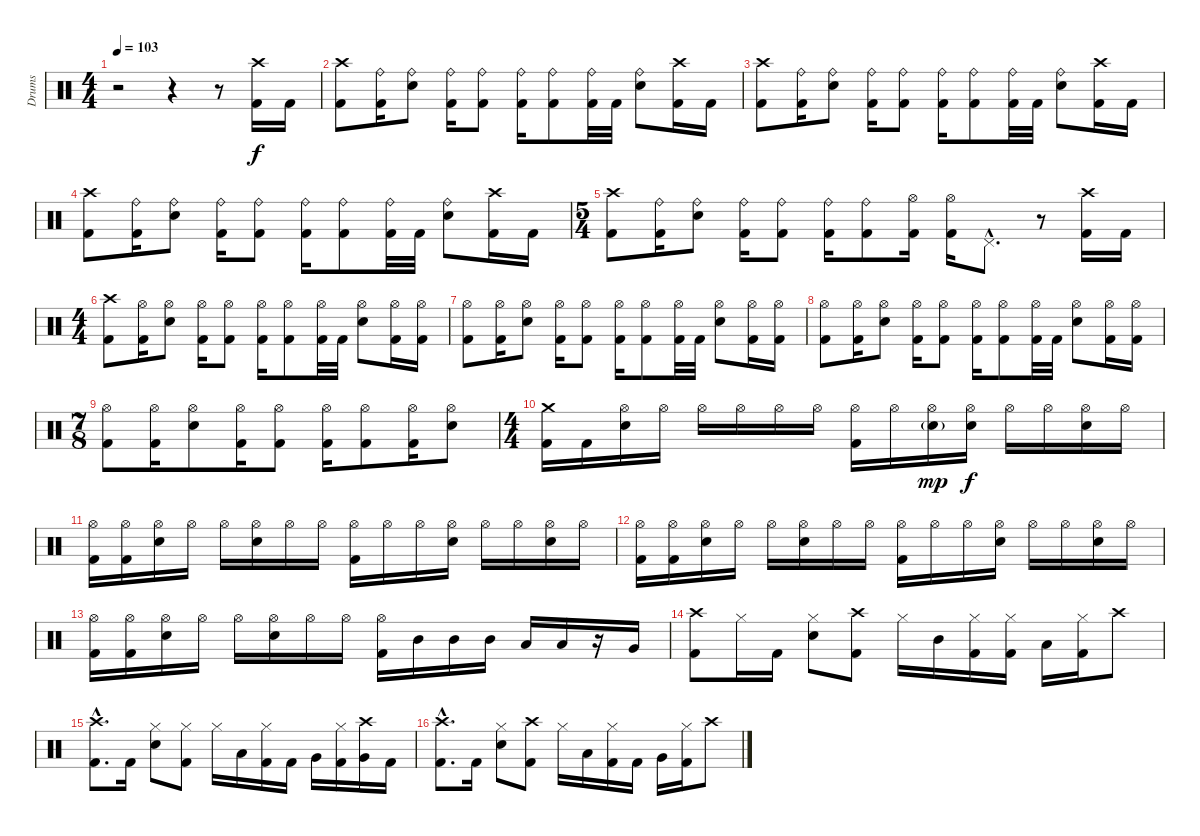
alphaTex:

\track ("Drums" "Drums") {instrument percussion}
\staff {score}
\articulation defaults
\ts (4 4)
\tempo 103
\clef neutral
\ks c
r.2{dy f} r.4 r.8 ("Crash high (hit)" "Kick (hit) 2").16 "Kick (hit) 2".16 |
("Crash high (hit)" "Kick (hit) 2").8 ("Ride (bell)" "Kick (hit) 2").16 ("Ride (bell)" "Electric Snare (hit)").8 ("Ride (bell)" "Kick (hit) 2").16 ("Ride (bell)" "Kick (hit) 2").8 ("Ride (bell)" "Kick (hit) 2").16 ("Ride (bell)" "Kick (hit) 2").8 ("Ride (bell)" "Kick (hit) 2").32 "Kick (hit) 2".32 ("Ride (bell)" "Electric Snare (hit)").8 ("Crash high (hit)" "Kick (hit) 2").16 "Kick (hit) 2".16 |
("Crash high (hit)" "Kick (hit) 2").8 ("Ride (bell)" "Kick (hit) 2").16 ("Ride (bell)" "Electric Snare (hit)").8 ("Ride (bell)" "Kick (hit) 2").16 ("Ride (bell)" "Kick (hit) 2").8 ("Ride (bell)" "Kick (hit) 2").16 ("Ride (bell)" "Kick (hit) 2").8 ("Ride (bell)" "Kick (hit) 2").32 "Kick (hit) 2".32 ("Ride (bell)" "Electric Snare (hit)").8 ("Crash high (hit)" "Kick (hit) 2").16 "Kick (hit) 2".16 |
("Crash high (hit)" "Kick (hit) 2").8 ("Ride (bell)" "Kick (hit) 2").16 ("Ride (bell)" "Electric Snare (hit)").8 ("Ride (bell)" "Kick (hit) 2").16 ("Ride (bell)" "Kick (hit) 2").8 ("Ride (bell)" "Kick (hit) 2").16 ("Ride (bell)" "Kick (hit) 2").8 ("Ride (bell)" "Kick (hit) 2").32 "Kick (hit) 2".32 ("Ride (bell)" "Electric Snare (hit)").8 ("Crash high (hit)" "Kick (hit) 2").16 "Kick (hit) 2".16 |
\ts (5 4)
("Crash high (hit)" "Kick (hit) 2").8 ("Ride (bell)" "Kick (hit) 2").16 ("Ride (bell)" "Electric Snare (hit)").8 ("Ride (bell)" "Kick (hit) 2").16 ("Ride (bell)" "Kick (hit) 2").8 ("Ride (bell)" "Kick (hit) 2").16 ("Ride (bell)" "Kick (hit) 2").8 ("Hi-Hat (open)" "Kick (hit) 2").16 ("Hi-Hat (open)" "Kick (hit) 2").16 "Pedal Hi-Hat (hit)"{hac}.8{d} r.8 ("Crash high (hit)" "Kick (hit) 2").16 "Kick (hit) 2".16 |
\ts (4 4)
("Crash high (hit)" "Kick (hit) 2").8 ("Hi-Hat (open)" "Kick (hit) 2").16 ("Hi-Hat (open)" "Electric Snare (hit)").8 ("Hi-Hat (open)" "Kick (hit) 2").16 ("Hi-Hat (open)" "Kick (hit) 2").8 ("Hi-Hat (open)" "Kick (hit) 2").16 ("Hi-Hat (open)" "Kick (hit) 2").8 ("Hi-Hat (open)" "Kick (hit) 2").32 "Kick (hit) 2".32 ("Hi-Hat (open)" "Electric Snare (hit)").8 ("Hi-Hat (open)" "Kick (hit) 2").16 ("Hi-Hat (open)" "Kick (hit) 2").16 |
("Hi-Hat (open)" "Kick (hit) 2").8 ("Hi-Hat (open)" "Kick (hit) 2").16 ("Hi-Hat (open)" "Electric Snare (hit)").8 ("Hi-Hat (open)" "Kick (hit) 2").16 ("Hi-Hat (open)" "Kick (hit) 2").8 ("Hi-Hat (open)" "Kick (hit) 2").16 ("Hi-Hat (open)" "Kick (hit) 2").8 ("Hi-Hat (open)" "Kick (hit) 2").32 "Kick (hit) 2".32 ("Hi-Hat (open)" "Electric Snare (hit)").8 ("Hi-Hat (open)" "Kick (hit) 2").16 ("Hi-Hat (open)" "Kick (hit) 2").16 |
("Hi-Hat (open)" "Kick (hit) 2").8 ("Hi-Hat (open)" "Kick (hit) 2").16 ("Hi-Hat (open)" "Electric Snare (hit)").8 ("Hi-Hat (open)" "Kick (hit) 2").16 ("Hi-Hat (open)" "Kick (hit) 2").8 ("Hi-Hat (open)" "Kick (hit) 2").16 ("Hi-Hat (open)" "Kick (hit) 2").8 ("Hi-Hat (open)" "Kick (hit) 2").32 "Kick (hit) 2".32 ("Hi-Hat (open)" "Electric Snare (hit)").8 ("Hi-Hat (open)" "Kick (hit) 2").16 ("Hi-Hat (open)" "Kick (hit) 2").16 |
\ts (7 8)
("Hi-Hat (open)" "Kick (hit) 2").8 ("Hi-Hat (open)" "Kick (hit) 2").16 ("Hi-Hat (open)" "Electric Snare (hit)").8 ("Hi-Hat (open)" "Kick (hit) 2").16 ("Hi-Hat (open)" "Kick (hit) 2").8 ("Hi-Hat (open)" "Kick (hit) 2").16 ("Hi-Hat (open)" "Kick (hit) 2").8 ("Hi-Hat (open)" "Kick (hit) 2").16 ("Hi-Hat (open)" "Electric Snare (hit)").8 |
\ts (4 4)
("Crash medium (hit)" "Kick (hit) 2").16 "Kick (hit) 2".16 ("Hi-Hat (open)" "Electric Snare (hit)").16 "Hi-Hat (open)".16 "Hi-Hat (open)".16 "Hi-Hat (open)".16 "Hi-Hat (open)".16 "Hi-Hat (open)".16 ("Hi-Hat (open)" "Kick (hit) 2").16 "Hi-Hat (open)".16 ("Hi-Hat (open)" "Electric Snare (hit)"{g}).16{dy mp} ("Hi-Hat (open)" "Electric Snare (hit)").16{dy f} "Hi-Hat (open)".16 "Hi-Hat (open)".16 ("Hi-Hat (open)" "Electric Snare (hit)").16 "Hi-Hat (open)".16 |
("Hi-Hat (open)" "Kick (hit) 2").16 ("Hi-Hat (open)" "Kick (hit) 2").16 ("Hi-Hat (open)" "Electric Snare (hit)").16 "Hi-Hat (open)".16 "Hi-Hat (open)".16 ("Hi-Hat (open)" "Electric Snare (hit)").16 "Hi-Hat (open)".16 "Hi-Hat (open)".16 ("Hi-Hat (open)" "Kick (hit) 2").16 "Hi-Hat (open)".16 "Hi-Hat (open)".16 ("Hi-Hat (open)" "Electric Snare (hit)").16 "Hi-Hat (open)".16 "Hi-Hat (open)".16 ("Hi-Hat (open)" "Electric Snare (hit)").16 "Hi-Hat (open)".16 |
("Hi-Hat (open)" "Kick (hit) 2").16 ("Hi-Hat (open)" "Kick (hit) 2").16 ("Hi-Hat (open)" "Electric Snare (hit)").16 "Hi-Hat (open)".16 "Hi-Hat (open)".16 ("Hi-Hat (open)" "Electric Snare (hit)").16 "Hi-Hat (open)".16 "Hi-Hat (open)".16 ("Hi-Hat (open)" "Kick (hit) 2").16 "Hi-Hat (open)".16 "Hi-Hat (open)".16 ("Hi-Hat (open)" "Electric Snare (hit)").16 "Hi-Hat (open)".16 "Hi-Hat (open)".16 ("Hi-Hat (open)" "Electric Snare (hit)").16 "Hi-Hat (open)".16 |
("Hi-Hat (open)" "Kick (hit) 2").16 ("Hi-Hat (open)" "Kick (hit) 2").16 ("Hi-Hat (open)" "Electric Snare (hit)").16 "Hi-Hat (open)".16 "Hi-Hat (open)".16 ("Hi-Hat (open)" "Electric Snare (hit)").16 "Hi-Hat (open)".16 "Hi-Hat (open)".16 ("Hi-Hat (open)" "Kick (hit) 2").16 "Mid Tom (hit)".16 "Mid Tom (hit)".16 "Mid Tom (hit)".16 "Low Tom (hit)".16 "Low Tom (hit)".16 r.16 "Very Low Tom (hit)".16 |
("Crash high (hit)" "Kick (hit) 2").8 "Hi-Hat (closed)".16 "Kick (hit) 2".16 ("Hi-Hat (closed)" "Electric Snare (hit)").8 ("Crash high (hit)" "Kick (hit) 2").8 "Hi-Hat (closed)".16 "Mid Tom (hit)".16 ("Hi-Hat (closed)" "Kick (hit) 2").16 ("Hi-Hat (closed)" "Kick (hit) 2").16 "Low Tom (hit)".16 ("Hi-Hat (closed)" "Kick (hit) 2").16 "Crash high (hit)".8 |
("Crash high (hit)"{hac} "Kick (hit) 2"{hac}).8{d} "Kick (hit) 2".16 ("Hi-Hat (closed)" "Electric Snare (hit)").8 ("Hi-Hat (closed)" "Kick (hit) 2").8 "Hi-Hat (closed)".16 "Low Tom (hit)".16 ("Hi-Hat (closed)" "Kick (hit) 2").16 "Kick (hit) 2".16 "Very Low Tom (hit)".16 ("Hi-Hat (closed)" "Kick (hit) 2").16 ("Crash high (hit)" "Very Low Tom (hit)").16 "Kick (hit) 2".16 |
("Crash high (hit)"{hac} "Kick (hit) 2"{hac}).8{d} "Kick (hit) 2".16 ("Hi-Hat (closed)" "Electric Snare (hit)").8 ("Crash high (hit)" "Kick (hit) 2").8 "Hi-Hat (closed)".16 "Low Tom (hit)".16 ("Hi-Hat (closed)" "Kick (hit) 2").16 "Kick (hit) 2".16 "Very Low Tom (hit)".16 ("Hi-Hat (closed)" "Kick (hit) 2").16 "Crash high (hit)".8
